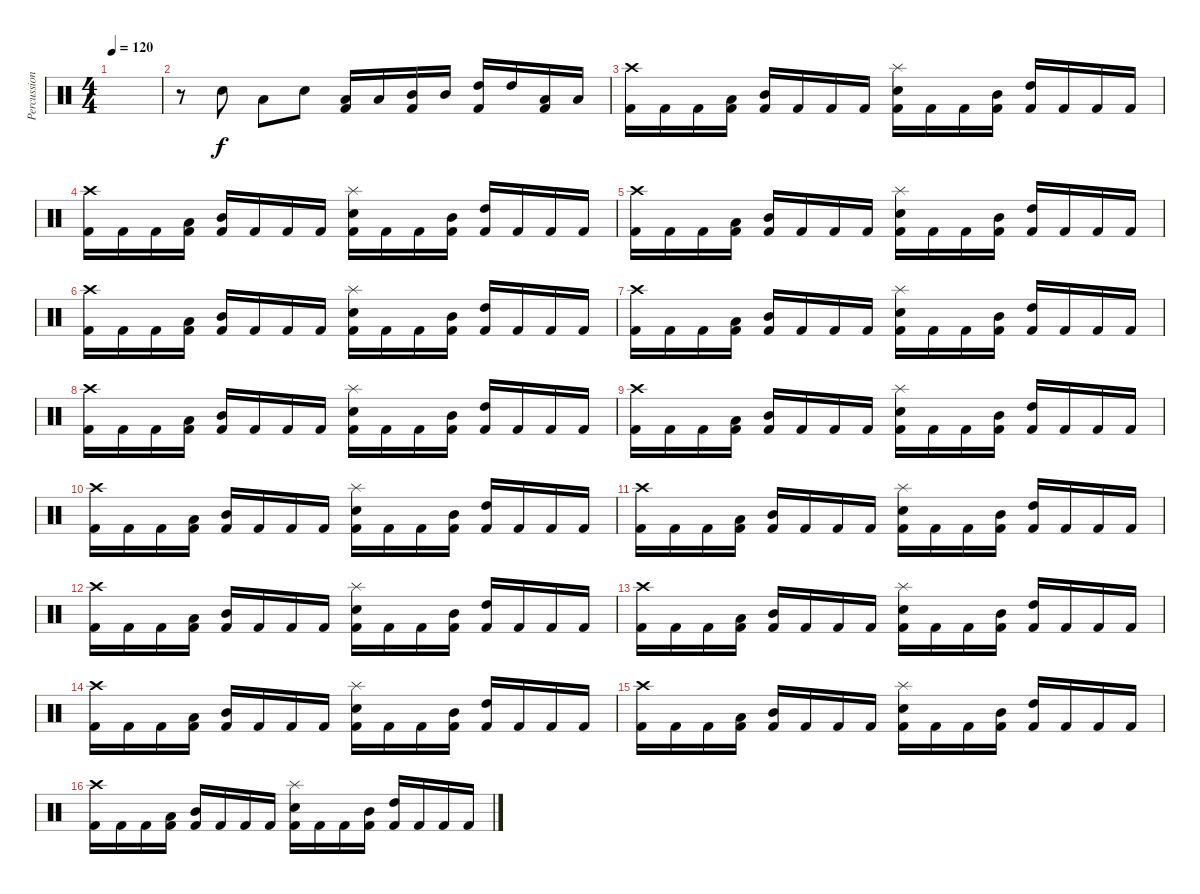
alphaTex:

\track ("Percussion" "Percussion") {instrument percussion}
\staff {score}
\articulation defaults
\ts (4 4)
\tempo 120
\clef neutral
\ks c
|
r.8 "Snare (hit) 2".8 "Low Tom (hit)".8 "Snare (hit) 2".8 ("Kick (hit) 2" "Low Tom (hit)").16 "Low Tom (hit)".16 ("Kick (hit) 2" "Mid Tom (hit)").16 "Mid Tom (hit)".16 ("Kick (hit) 2" "High Tom (hit)").16 "High Tom (hit)".16 ("Kick (hit) 2" "Low Floor Tom (hit)").16 "Low Floor Tom (hit)".16 |
("Kick (hit) 2" "Crash high (hit)").16 "Kick (hit) 2".16 "Kick (hit) 2".16 ("Kick (hit) 2" "Low Tom (hit)").16 ("Kick (hit) 2" "Mid Tom (hit)").16 "Kick (hit) 2".16 "Kick (hit) 2".16 "Kick (hit) 2".16 ("Kick (hit) 2" "Snare (hit) 2" "Splash (hit)").16 "Kick (hit) 2".16 "Kick (hit) 2".16 ("Kick (hit) 2" "Mid Tom (hit)").16 ("Kick (hit) 2" "High Tom (hit)").16 "Kick (hit) 2".16 "Kick (hit) 2".16 "Kick (hit) 2".16 |
("Kick (hit) 2" "Crash high (hit)").16 "Kick (hit) 2".16 "Kick (hit) 2".16 ("Kick (hit) 2" "Low Tom (hit)").16 ("Kick (hit) 2" "Mid Tom (hit)").16 "Kick (hit) 2".16 "Kick (hit) 2".16 "Kick (hit) 2".16 ("Kick (hit) 2" "Snare (hit) 2" "Splash (hit)").16 "Kick (hit) 2".16 "Kick (hit) 2".16 ("Kick (hit) 2" "Mid Tom (hit)").16 ("Kick (hit) 2" "High Tom (hit)").16 "Kick (hit) 2".16 "Kick (hit) 2".16 "Kick (hit) 2".16 |
("Kick (hit) 2" "Crash high (hit)").16 "Kick (hit) 2".16 "Kick (hit) 2".16 ("Kick (hit) 2" "Low Tom (hit)").16 ("Kick (hit) 2" "Mid Tom (hit)").16 "Kick (hit) 2".16 "Kick (hit) 2".16 "Kick (hit) 2".16 ("Kick (hit) 2" "Snare (hit) 2" "Splash (hit)").16 "Kick (hit) 2".16 "Kick (hit) 2".16 ("Kick (hit) 2" "Mid Tom (hit)").16 ("Kick (hit) 2" "High Tom (hit)").16 "Kick (hit) 2".16 "Kick (hit) 2".16 "Kick (hit) 2".16 |
("Kick (hit) 2" "Crash high (hit)").16 "Kick (hit) 2".16 "Kick (hit) 2".16 ("Kick (hit) 2" "Low Tom (hit)").16 ("Kick (hit) 2" "Mid Tom (hit)").16 "Kick (hit) 2".16 "Kick (hit) 2".16 "Kick (hit) 2".16 ("Kick (hit) 2" "Snare (hit) 2" "Splash (hit)").16 "Kick (hit) 2".16 "Kick (hit) 2".16 ("Kick (hit) 2" "Mid Tom (hit)").16 ("Kick (hit) 2" "High Tom (hit)").16 "Kick (hit) 2".16 "Kick (hit) 2".16 "Kick (hit) 2".16 |
("Kick (hit) 2" "Crash high (hit)").16 "Kick (hit) 2".16 "Kick (hit) 2".16 ("Kick (hit) 2" "Low Tom (hit)").16 ("Kick (hit) 2" "Mid Tom (hit)").16 "Kick (hit) 2".16 "Kick (hit) 2".16 "Kick (hit) 2".16 ("Kick (hit) 2" "Snare (hit) 2" "Splash (hit)").16 "Kick (hit) 2".16 "Kick (hit) 2".16 ("Kick (hit) 2" "Mid Tom (hit)").16 ("Kick (hit) 2" "High Tom (hit)").16 "Kick (hit) 2".16 "Kick (hit) 2".16 "Kick (hit) 2".16 |
("Kick (hit) 2" "Crash high (hit)").16 "Kick (hit) 2".16 "Kick (hit) 2".16 ("Kick (hit) 2" "Low Tom (hit)").16 ("Kick (hit) 2" "Mid Tom (hit)").16 "Kick (hit) 2".16 "Kick (hit) 2".16 "Kick (hit) 2".16 ("Kick (hit) 2" "Snare (hit) 2" "Splash (hit)").16 "Kick (hit) 2".16 "Kick (hit) 2".16 ("Kick (hit) 2" "Mid Tom (hit)").16 ("Kick (hit) 2" "High Tom (hit)").16 "Kick (hit) 2".16 "Kick (hit) 2".16 "Kick (hit) 2".16 |
("Kick (hit) 2" "Crash high (hit)").16 "Kick (hit) 2".16 "Kick (hit) 2".16 ("Kick (hit) 2" "Low Tom (hit)").16 ("Kick (hit) 2" "Mid Tom (hit)").16 "Kick (hit) 2".16 "Kick (hit) 2".16 "Kick (hit) 2".16 ("Kick (hit) 2" "Snare (hit) 2" "Splash (hit)").16 "Kick (hit) 2".16 "Kick (hit) 2".16 ("Kick (hit) 2" "Mid Tom (hit)").16 ("Kick (hit) 2" "High Tom (hit)").16 "Kick (hit) 2".16 "Kick (hit) 2".16 "Kick (hit) 2".16 |
("Kick (hit) 2" "Crash high (hit)").16 "Kick (hit) 2".16 "Kick (hit) 2".16 ("Kick (hit) 2" "Low Tom (hit)").16 ("Kick (hit) 2" "Mid Tom (hit)").16 "Kick (hit) 2".16 "Kick (hit) 2".16 "Kick (hit) 2".16 ("Kick (hit) 2" "Snare (hit) 2" "Splash (hit)").16 "Kick (hit) 2".16 "Kick (hit) 2".16 ("Kick (hit) 2" "Mid Tom (hit)").16 ("Kick (hit) 2" "High Tom (hit)").16 "Kick (hit) 2".16 "Kick (hit) 2".16 "Kick (hit) 2".16 |
("Kick (hit) 2" "Crash high (hit)").16 "Kick (hit) 2".16 "Kick (hit) 2".16 ("Kick (hit) 2" "Low Tom (hit)").16 ("Kick (hit) 2" "Mid Tom (hit)").16 "Kick (hit) 2".16 "Kick (hit) 2".16 "Kick (hit) 2".16 ("Kick (hit) 2" "Snare (hit) 2" "Splash (hit)").16 "Kick (hit) 2".16 "Kick (hit) 2".16 ("Kick (hit) 2" "Mid Tom (hit)").16 ("Kick (hit) 2" "High Tom (hit)").16 "Kick (hit) 2".16 "Kick (hit) 2".16 "Kick (hit) 2".16 |
("Kick (hit) 2" "Crash high (hit)").16 "Kick (hit) 2".16 "Kick (hit) 2".16 ("Kick (hit) 2" "Low Tom (hit)").16 ("Kick (hit) 2" "Mid Tom (hit)").16 "Kick (hit) 2".16 "Kick (hit) 2".16 "Kick (hit) 2".16 ("Kick (hit) 2" "Snare (hit) 2" "Splash (hit)").16 "Kick (hit) 2".16 "Kick (hit) 2".16 ("Kick (hit) 2" "Mid Tom (hit)").16 ("Kick (hit) 2" "High Tom (hit)").16 "Kick (hit) 2".16 "Kick (hit) 2".16 "Kick (hit) 2".16 |
("Kick (hit) 2" "Crash high (hit)").16 "Kick (hit) 2".16 "Kick (hit) 2".16 ("Kick (hit) 2" "Low Tom (hit)").16 ("Kick (hit) 2" "Mid Tom (hit)").16 "Kick (hit) 2".16 "Kick (hit) 2".16 "Kick (hit) 2".16 ("Kick (hit) 2" "Snare (hit) 2" "Splash (hit)").16 "Kick (hit) 2".16 "Kick (hit) 2".16 ("Kick (hit) 2" "Mid Tom (hit)").16 ("Kick (hit) 2" "High Tom (hit)").16 "Kick (hit) 2".16 "Kick (hit) 2".16 "Kick (hit) 2".16 |
("Kick (hit) 2" "Crash high (hit)").16 "Kick (hit) 2".16 "Kick (hit) 2".16 ("Kick (hit) 2" "Low Tom (hit)").16 ("Kick (hit) 2" "Mid Tom (hit)").16 "Kick (hit) 2".16 "Kick (hit) 2".16 "Kick (hit) 2".16 ("Kick (hit) 2" "Snare (hit) 2" "Splash (hit)").16 "Kick (hit) 2".16 "Kick (hit) 2".16 ("Kick (hit) 2" "Mid Tom (hit)").16 ("Kick (hit) 2" "High Tom (hit)").16 "Kick (hit) 2".16 "Kick (hit) 2".16 "Kick (hit) 2".16 |
("Kick (hit) 2" "Crash high (hit)").16 "Kick (hit) 2".16 "Kick (hit) 2".16 ("Kick (hit) 2" "Low Tom (hit)").16 ("Kick (hit) 2" "Mid Tom (hit)").16 "Kick (hit) 2".16 "Kick (hit) 2".16 "Kick (hit) 2".16 ("Kick (hit) 2" "Snare (hit) 2" "Splash (hit)").16 "Kick (hit) 2".16 "Kick (hit) 2".16 ("Kick (hit) 2" "Mid Tom (hit)").16 ("Kick (hit) 2" "High Tom (hit)").16 "Kick (hit) 2".16 "Kick (hit) 2".16 "Kick (hit) 2".16 |
("Kick (hit) 2" "Crash high (hit)").16 "Kick (hit) 2".16 "Kick (hit) 2".16 ("Kick (hit) 2" "Low Tom (hit)").16 ("Kick (hit) 2" "Mid Tom (hit)").16 "Kick (hit) 2".16 "Kick (hit) 2".16 "Kick (hit) 2".16 ("Kick (hit) 2" "Snare (hit) 2" "Splash (hit)").16 "Kick (hit) 2".16 "Kick (hit) 2".16 ("Kick (hit) 2" "Mid Tom (hit)").16 ("Kick (hit) 2" "High Tom (hit)").16 "Kick (hit) 2".16 "Kick (hit) 2".16 "Kick (hit) 2".16
